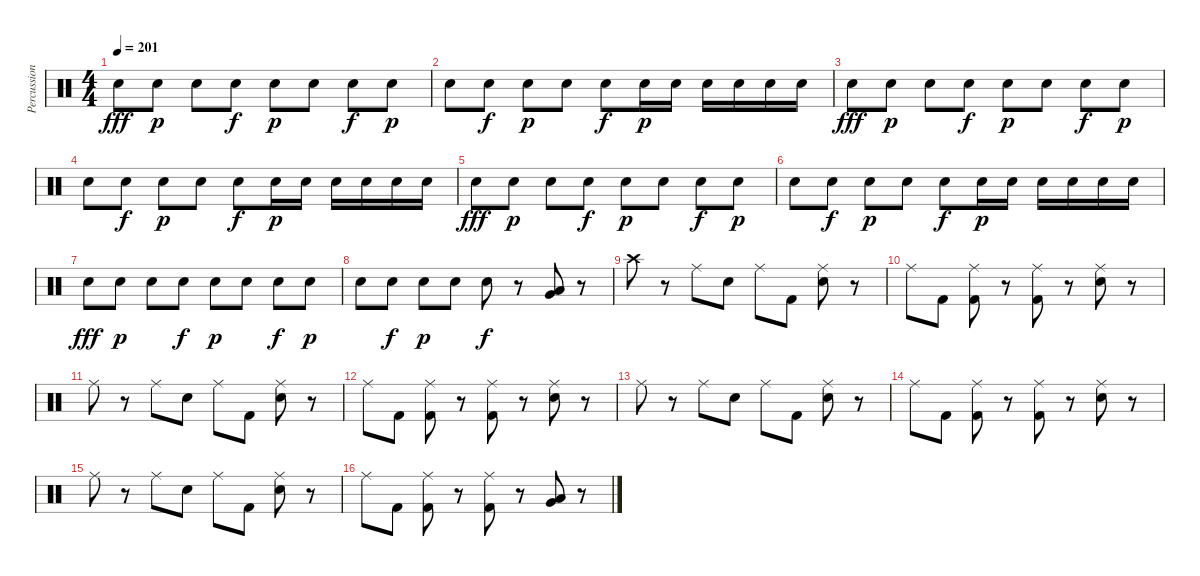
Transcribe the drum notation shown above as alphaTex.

\track ("Percussion" "Percussion") {instrument percussion}
\staff {score}
\articulation defaults
\ts (4 4)
\tempo 201
\clef neutral
\ks c "Electric Snare (hit)".8{dy fff} "Electric Snare (hit)".8{dy p} "Electric Snare (hit)".8 "Electric Snare (hit)".8{dy f} "Electric Snare (hit)".8{dy p} "Electric Snare (hit)".8 "Electric Snare (hit)".8{dy f} "Electric Snare (hit)".8{dy p}
|
"Electric Snare (hit)".8 "Electric Snare (hit)".8{dy f} "Electric Snare (hit)".8{dy p} "Electric Snare (hit)".8 "Electric Snare (hit)".8{dy f} "Electric Snare (hit)".16{dy p} "Electric Snare (hit)".16 "Electric Snare (hit)".16 "Electric Snare (hit)".16 "Electric Snare (hit)".16 "Electric Snare (hit)".16 |
"Electric Snare (hit)".8{dy fff} "Electric Snare (hit)".8{dy p} "Electric Snare (hit)".8 "Electric Snare (hit)".8{dy f} "Electric Snare (hit)".8{dy p} "Electric Snare (hit)".8 "Electric Snare (hit)".8{dy f} "Electric Snare (hit)".8{dy p} |
"Electric Snare (hit)".8 "Electric Snare (hit)".8{dy f} "Electric Snare (hit)".8{dy p} "Electric Snare (hit)".8 "Electric Snare (hit)".8{dy f} "Electric Snare (hit)".16{dy p} "Electric Snare (hit)".16 "Electric Snare (hit)".16 "Electric Snare (hit)".16 "Electric Snare (hit)".16 "Electric Snare (hit)".16 |
"Electric Snare (hit)".8{dy fff} "Electric Snare (hit)".8{dy p} "Electric Snare (hit)".8 "Electric Snare (hit)".8{dy f} "Electric Snare (hit)".8{dy p} "Electric Snare (hit)".8 "Electric Snare (hit)".8{dy f} "Electric Snare (hit)".8{dy p} |
"Electric Snare (hit)".8 "Electric Snare (hit)".8{dy f} "Electric Snare (hit)".8{dy p} "Electric Snare (hit)".8 "Electric Snare (hit)".8{dy f} "Electric Snare (hit)".16{dy p} "Electric Snare (hit)".16 "Electric Snare (hit)".16 "Electric Snare (hit)".16 "Electric Snare (hit)".16 "Electric Snare (hit)".16 |
"Electric Snare (hit)".8{dy fff} "Electric Snare (hit)".8{dy p} "Electric Snare (hit)".8 "Electric Snare (hit)".8{dy f} "Electric Snare (hit)".8{dy p} "Electric Snare (hit)".8 "Electric Snare (hit)".8{dy f} "Electric Snare (hit)".8{dy p} |
"Electric Snare (hit)".8 "Electric Snare (hit)".8{dy f} "Electric Snare (hit)".8{dy p} "Electric Snare (hit)".8 "Electric Snare (hit)".8{dy f} r.8 ("Low Tom (hit)" "Very Low Tom (hit)").8 r.8 |
"Crash high (hit)".8 r.8 "Ride (middle)".8 "Electric Snare (hit)".8 "Ride (middle)".8 "Kick (hit) 2".8 ("Ride (middle)" "Electric Snare (hit)").8 r.8 |
"Ride (middle)".8 "Kick (hit) 2".8 ("Ride (middle)" "Kick (hit) 2").8 r.8 ("Ride (middle)" "Kick (hit) 2").8 r.8 ("Ride (middle)" "Electric Snare (hit)").8 r.8 |
"Ride (middle)".8 r.8 "Ride (middle)".8 "Electric Snare (hit)".8 "Ride (middle)".8 "Kick (hit) 2".8 ("Ride (middle)" "Electric Snare (hit)").8 r.8 |
"Ride (middle)".8 "Kick (hit) 2".8 ("Ride (middle)" "Kick (hit) 2").8 r.8 ("Ride (middle)" "Kick (hit) 2").8 r.8 ("Ride (middle)" "Electric Snare (hit)").8 r.8 |
"Ride (middle)".8 r.8 "Ride (middle)".8 "Electric Snare (hit)".8 "Ride (middle)".8 "Kick (hit) 2".8 ("Ride (middle)" "Electric Snare (hit)").8 r.8 |
"Ride (middle)".8 "Kick (hit) 2".8 ("Ride (middle)" "Kick (hit) 2").8 r.8 ("Ride (middle)" "Kick (hit) 2").8 r.8 ("Ride (middle)" "Electric Snare (hit)").8 r.8 |
"Ride (middle)".8 r.8 "Ride (middle)".8 "Electric Snare (hit)".8 "Ride (middle)".8 "Kick (hit) 2".8 ("Ride (middle)" "Electric Snare (hit)").8 r.8 |
"Ride (middle)".8 "Kick (hit) 2".8 ("Ride (middle)" "Kick (hit) 2").8 r.8 ("Ride (middle)" "Kick (hit) 2").8 r.8 ("Very Low Tom (hit)" "Low Tom (hit)").8 r.8
